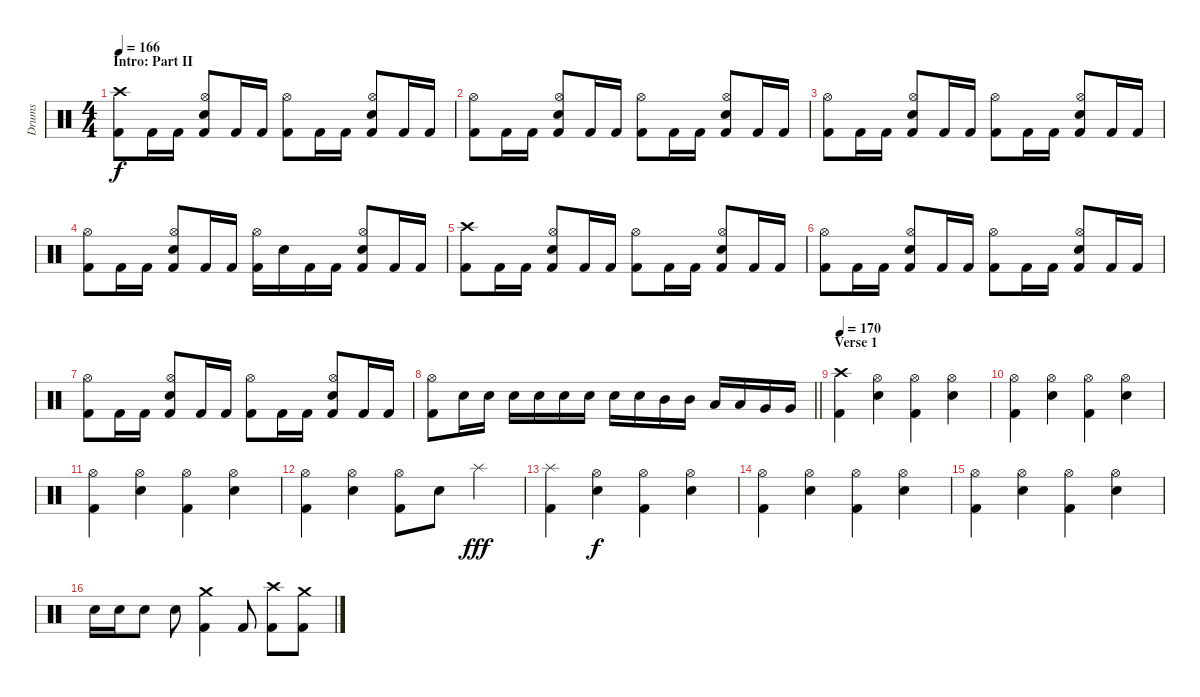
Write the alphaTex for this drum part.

\track ("Drums" "Drums") {instrument percussion}
\staff {score}
\articulation defaults
\ts (4 4)
\section ("" "Intro: Part II")
\tempo 166
\clef neutral
\ks c
("Crash high (hit)" "Kick (hit) 2").8{dy f} "Kick (hit) 2".16 "Kick (hit) 2".16 ("Hi-Hat (open)" "Electric Snare (hit)" "Kick (hit) 2").8 "Kick (hit) 2".16 "Kick (hit) 2".16 ("Hi-Hat (open)" "Kick (hit) 2").8 "Kick (hit) 2".16 "Kick (hit) 2".16 ("Hi-Hat (open)" "Electric Snare (hit)" "Kick (hit) 2").8 "Kick (hit) 2".16 "Kick (hit) 2".16 |
("Hi-Hat (open)" "Kick (hit) 2").8 "Kick (hit) 2".16 "Kick (hit) 2".16 ("Hi-Hat (open)" "Electric Snare (hit)" "Kick (hit) 2").8 "Kick (hit) 2".16 "Kick (hit) 2".16 ("Hi-Hat (open)" "Kick (hit) 2").8 "Kick (hit) 2".16 "Kick (hit) 2".16 ("Hi-Hat (open)" "Electric Snare (hit)" "Kick (hit) 2").8 "Kick (hit) 2".16 "Kick (hit) 2".16 |
("Hi-Hat (open)" "Kick (hit) 2").8 "Kick (hit) 2".16 "Kick (hit) 2".16 ("Hi-Hat (open)" "Electric Snare (hit)" "Kick (hit) 2").8 "Kick (hit) 2".16 "Kick (hit) 2".16 ("Hi-Hat (open)" "Kick (hit) 2").8 "Kick (hit) 2".16 "Kick (hit) 2".16 ("Hi-Hat (open)" "Electric Snare (hit)" "Kick (hit) 2").8 "Kick (hit) 2".16 "Kick (hit) 2".16 |
("Hi-Hat (open)" "Kick (hit) 2").8 "Kick (hit) 2".16 "Kick (hit) 2".16 ("Hi-Hat (open)" "Electric Snare (hit)" "Kick (hit) 2").8 "Kick (hit) 2".16 "Kick (hit) 2".16 ("Hi-Hat (open)" "Kick (hit) 2").16 "Electric Snare (hit)".16 "Kick (hit) 2".16 "Kick (hit) 2".16 ("Hi-Hat (open)" "Electric Snare (hit)" "Kick (hit) 2").8 "Kick (hit) 2".16 "Kick (hit) 2".16 |
("Crash high (hit)" "Kick (hit) 2").8 "Kick (hit) 2".16 "Kick (hit) 2".16 ("Hi-Hat (open)" "Electric Snare (hit)" "Kick (hit) 2").8 "Kick (hit) 2".16 "Kick (hit) 2".16 ("Hi-Hat (open)" "Kick (hit) 2").8 "Kick (hit) 2".16 "Kick (hit) 2".16 ("Hi-Hat (open)" "Electric Snare (hit)" "Kick (hit) 2").8 "Kick (hit) 2".16 "Kick (hit) 2".16 |
("Hi-Hat (open)" "Kick (hit) 2").8 "Kick (hit) 2".16 "Kick (hit) 2".16 ("Hi-Hat (open)" "Electric Snare (hit)" "Kick (hit) 2").8 "Kick (hit) 2".16 "Kick (hit) 2".16 ("Hi-Hat (open)" "Kick (hit) 2").8 "Kick (hit) 2".16 "Kick (hit) 2".16 ("Hi-Hat (open)" "Electric Snare (hit)" "Kick (hit) 2").8 "Kick (hit) 2".16 "Kick (hit) 2".16 |
("Hi-Hat (open)" "Kick (hit) 2").8 "Kick (hit) 2".16 "Kick (hit) 2".16 ("Hi-Hat (open)" "Electric Snare (hit)" "Kick (hit) 2").8 "Kick (hit) 2".16 "Kick (hit) 2".16 ("Hi-Hat (open)" "Kick (hit) 2").8 "Kick (hit) 2".16 "Kick (hit) 2".16 ("Hi-Hat (open)" "Electric Snare (hit)" "Kick (hit) 2").8 "Kick (hit) 2".16 "Kick (hit) 2".16 |
\barLineRight lightlight
("Hi-Hat (open)" "Kick (hit) 2").8 "Electric Snare (hit)".16 "Electric Snare (hit)".16 "Electric Snare (hit)".16 "Electric Snare (hit)".16 "Electric Snare (hit)".16 "Electric Snare (hit)".16 "Electric Snare (hit)".16 "Electric Snare (hit)".16 "Mid Tom (hit)".16 "Mid Tom (hit)".16 "Low Tom (hit)".16 "Low Tom (hit)".16 "Very Low Tom (hit)".16 "Very Low Tom (hit)".16 |
\section ("" "Verse 1")
\tempo 170
("Crash high (hit)" "Kick (hit) 2").4 ("Hi-Hat (open)" "Electric Snare (hit)").4 ("Hi-Hat (open)" "Kick (hit) 2").4 ("Hi-Hat (open)" "Electric Snare (hit)").4 |
("Hi-Hat (open)" "Kick (hit) 2").4 ("Hi-Hat (open)" "Electric Snare (hit)").4 ("Hi-Hat (open)" "Kick (hit) 2").4 ("Hi-Hat (open)" "Electric Snare (hit)").4 |
("Hi-Hat (open)" "Kick (hit) 2").4 ("Hi-Hat (open)" "Electric Snare (hit)").4 ("Hi-Hat (open)" "Kick (hit) 2").4 ("Hi-Hat (open)" "Electric Snare (hit)").4 |
("Hi-Hat (open)" "Kick (hit) 2").4 ("Hi-Hat (open)" "Electric Snare (hit)").4 ("Hi-Hat (open)" "Kick (hit) 2").8 "Electric Snare (hit)".8 "Splash (hit)".4{dy fff} |
("Splash (hit)" "Kick (hit) 2").4 ("Hi-Hat (open)" "Electric Snare (hit)").4{dy f} ("Hi-Hat (open)" "Kick (hit) 2").4 ("Hi-Hat (open)" "Electric Snare (hit)").4 |
("Hi-Hat (open)" "Kick (hit) 2").4 ("Hi-Hat (open)" "Electric Snare (hit)").4 ("Hi-Hat (open)" "Kick (hit) 2").4 ("Hi-Hat (open)" "Electric Snare (hit)").4 |
("Hi-Hat (open)" "Kick (hit) 2").4 ("Hi-Hat (open)" "Electric Snare (hit)").4 ("Hi-Hat (open)" "Kick (hit) 2").4 ("Hi-Hat (open)" "Electric Snare (hit)").4 |
"Electric Snare (hit)".16 "Electric Snare (hit)".16 "Electric Snare (hit)".8 "Electric Snare (hit)".8 ("Crash medium (hit)" "Kick (hit) 2").4 "Kick (hit) 2".8 ("Crash high (hit)" "Kick (hit) 2").8 ("Crash medium (hit)" "Kick (hit) 2").8
